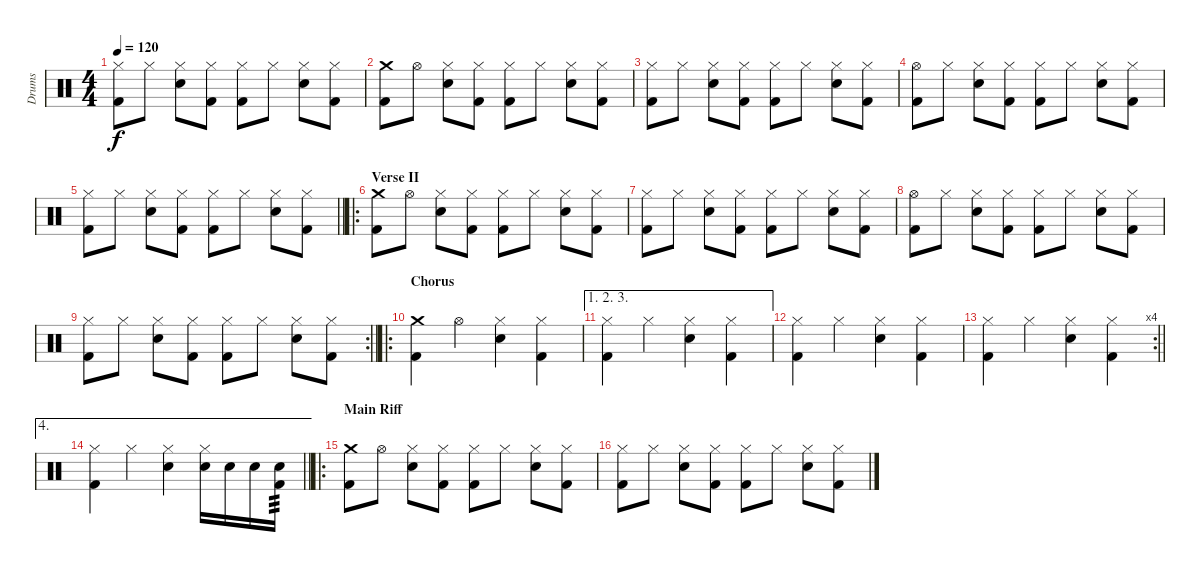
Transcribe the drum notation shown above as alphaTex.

\track ("Drums" "Drums") {instrument percussion}
\staff {score}
\articulation defaults
\ts (4 4)
\tempo 120
\clef neutral
\ks c
("Kick (hit) 2" "Hi-Hat (closed)").8{dy f} "Hi-Hat (closed)".8 ("Snare (hit) 2" "Hi-Hat (closed)").8 ("Kick (hit) 2" "Hi-Hat (closed)").8 ("Kick (hit) 2" "Hi-Hat (closed)").8 "Hi-Hat (closed)".8 ("Snare (hit) 2" "Hi-Hat (closed)").8 ("Kick (hit) 2" "Hi-Hat (closed)").8 |
("Kick (hit) 2" "Crash medium (hit)").8 "Hi-Hat (open)".8 ("Snare (hit) 2" "Hi-Hat (closed)").8 ("Kick (hit) 2" "Hi-Hat (closed)").8 ("Kick (hit) 2" "Hi-Hat (closed)").8 "Hi-Hat (closed)".8 ("Snare (hit) 2" "Hi-Hat (closed)").8 ("Kick (hit) 2" "Hi-Hat (closed)").8 |
("Kick (hit) 2" "Hi-Hat (closed)").8 "Hi-Hat (closed)".8 ("Snare (hit) 2" "Hi-Hat (closed)").8 ("Kick (hit) 2" "Hi-Hat (closed)").8 ("Kick (hit) 2" "Hi-Hat (closed)").8 "Hi-Hat (closed)".8 ("Snare (hit) 2" "Hi-Hat (closed)").8 ("Kick (hit) 2" "Hi-Hat (closed)").8 |
("Kick (hit) 2" "Hi-Hat (open)").8 "Hi-Hat (closed)".8 ("Snare (hit) 2" "Hi-Hat (closed)").8 ("Kick (hit) 2" "Hi-Hat (closed)").8 ("Kick (hit) 2" "Hi-Hat (closed)").8 "Hi-Hat (closed)".8 ("Snare (hit) 2" "Hi-Hat (closed)").8 ("Kick (hit) 2" "Hi-Hat (closed)").8 |
\barLineRight lightlight
("Kick (hit) 2" "Hi-Hat (closed)").8 "Hi-Hat (closed)".8 ("Snare (hit) 2" "Hi-Hat (closed)").8 ("Kick (hit) 2" "Hi-Hat (closed)").8 ("Kick (hit) 2" "Hi-Hat (closed)").8 "Hi-Hat (closed)".8 ("Snare (hit) 2" "Hi-Hat (closed)").8 ("Kick (hit) 2" "Hi-Hat (closed)").8 |
\ro
\section ("" "Verse II")
("Kick (hit) 2" "Crash medium (hit)").8 "Hi-Hat (open)".8 ("Snare (hit) 2" "Hi-Hat (closed)").8 ("Kick (hit) 2" "Hi-Hat (closed)").8 ("Kick (hit) 2" "Hi-Hat (closed)").8 "Hi-Hat (closed)".8 ("Snare (hit) 2" "Hi-Hat (closed)").8 ("Kick (hit) 2" "Hi-Hat (closed)").8 |
("Kick (hit) 2" "Hi-Hat (closed)").8 "Hi-Hat (closed)".8 ("Snare (hit) 2" "Hi-Hat (closed)").8 ("Kick (hit) 2" "Hi-Hat (closed)").8 ("Kick (hit) 2" "Hi-Hat (closed)").8 "Hi-Hat (closed)".8 ("Snare (hit) 2" "Hi-Hat (closed)").8 ("Kick (hit) 2" "Hi-Hat (closed)").8 |
("Kick (hit) 2" "Hi-Hat (open)").8 "Hi-Hat (closed)".8 ("Snare (hit) 2" "Hi-Hat (closed)").8 ("Kick (hit) 2" "Hi-Hat (closed)").8 ("Kick (hit) 2" "Hi-Hat (closed)").8 "Hi-Hat (closed)".8 ("Snare (hit) 2" "Hi-Hat (closed)").8 ("Kick (hit) 2" "Hi-Hat (closed)").8 |
\rc 2
\barLineRight lightlight
("Kick (hit) 2" "Hi-Hat (closed)").8 "Hi-Hat (closed)".8 ("Snare (hit) 2" "Hi-Hat (closed)").8 ("Kick (hit) 2" "Hi-Hat (closed)").8 ("Kick (hit) 2" "Hi-Hat (closed)").8 "Hi-Hat (closed)".8 ("Snare (hit) 2" "Hi-Hat (closed)").8 ("Kick (hit) 2" "Hi-Hat (closed)").8 |
\ro
\section ("" "Chorus")
("Kick (hit) 2" "Crash medium (hit)").4 "Hi-Hat (open)".4 ("Snare (hit) 2" "Hi-Hat (closed)").4 ("Kick (hit) 2" "Hi-Hat (closed)").4 |
\ae (1 2 3)
("Kick (hit) 2" "Hi-Hat (closed)").4 "Hi-Hat (closed)".4 ("Snare (hit) 2" "Hi-Hat (closed)").4 ("Kick (hit) 2" "Hi-Hat (closed)").4 |
("Kick (hit) 2" "Hi-Hat (closed)").4 "Hi-Hat (closed)".4 ("Snare (hit) 2" "Hi-Hat (closed)").4 ("Kick (hit) 2" "Hi-Hat (closed)").4 |
\rc 4
\barLineRight lightlight
("Kick (hit) 2" "Hi-Hat (closed)").4 "Hi-Hat (closed)".4 ("Snare (hit) 2" "Hi-Hat (closed)").4 ("Kick (hit) 2" "Hi-Hat (closed)").4 |
\ae 4
\barLineRight lightlight
("Kick (hit) 2" "Hi-Hat (closed)").4 "Hi-Hat (closed)".4 ("Snare (hit) 2" "Hi-Hat (closed)").4 ("Electric Snare (hit)" "Hi-Hat (closed)").16 "Snare (hit) 2".16 "Electric Snare (hit)".16 ("Kick (hit) 2" "Snare (hit) 2").16{tp 3} |
\ro
\section ("" "Main Riff")
("Kick (hit) 2" "Crash medium (hit)").8 "Hi-Hat (open)".8 ("Snare (hit) 2" "Hi-Hat (closed)").8 ("Kick (hit) 2" "Hi-Hat (closed)").8 ("Kick (hit) 2" "Hi-Hat (closed)").8 "Hi-Hat (closed)".8 ("Snare (hit) 2" "Hi-Hat (closed)").8 ("Kick (hit) 2" "Hi-Hat (closed)").8 |
("Kick (hit) 2" "Hi-Hat (closed)").8 "Hi-Hat (closed)".8 ("Snare (hit) 2" "Hi-Hat (closed)").8 ("Kick (hit) 2" "Hi-Hat (closed)").8 ("Kick (hit) 2" "Hi-Hat (closed)").8 "Hi-Hat (closed)".8 ("Snare (hit) 2" "Hi-Hat (closed)").8 ("Kick (hit) 2" "Hi-Hat (closed)").8
